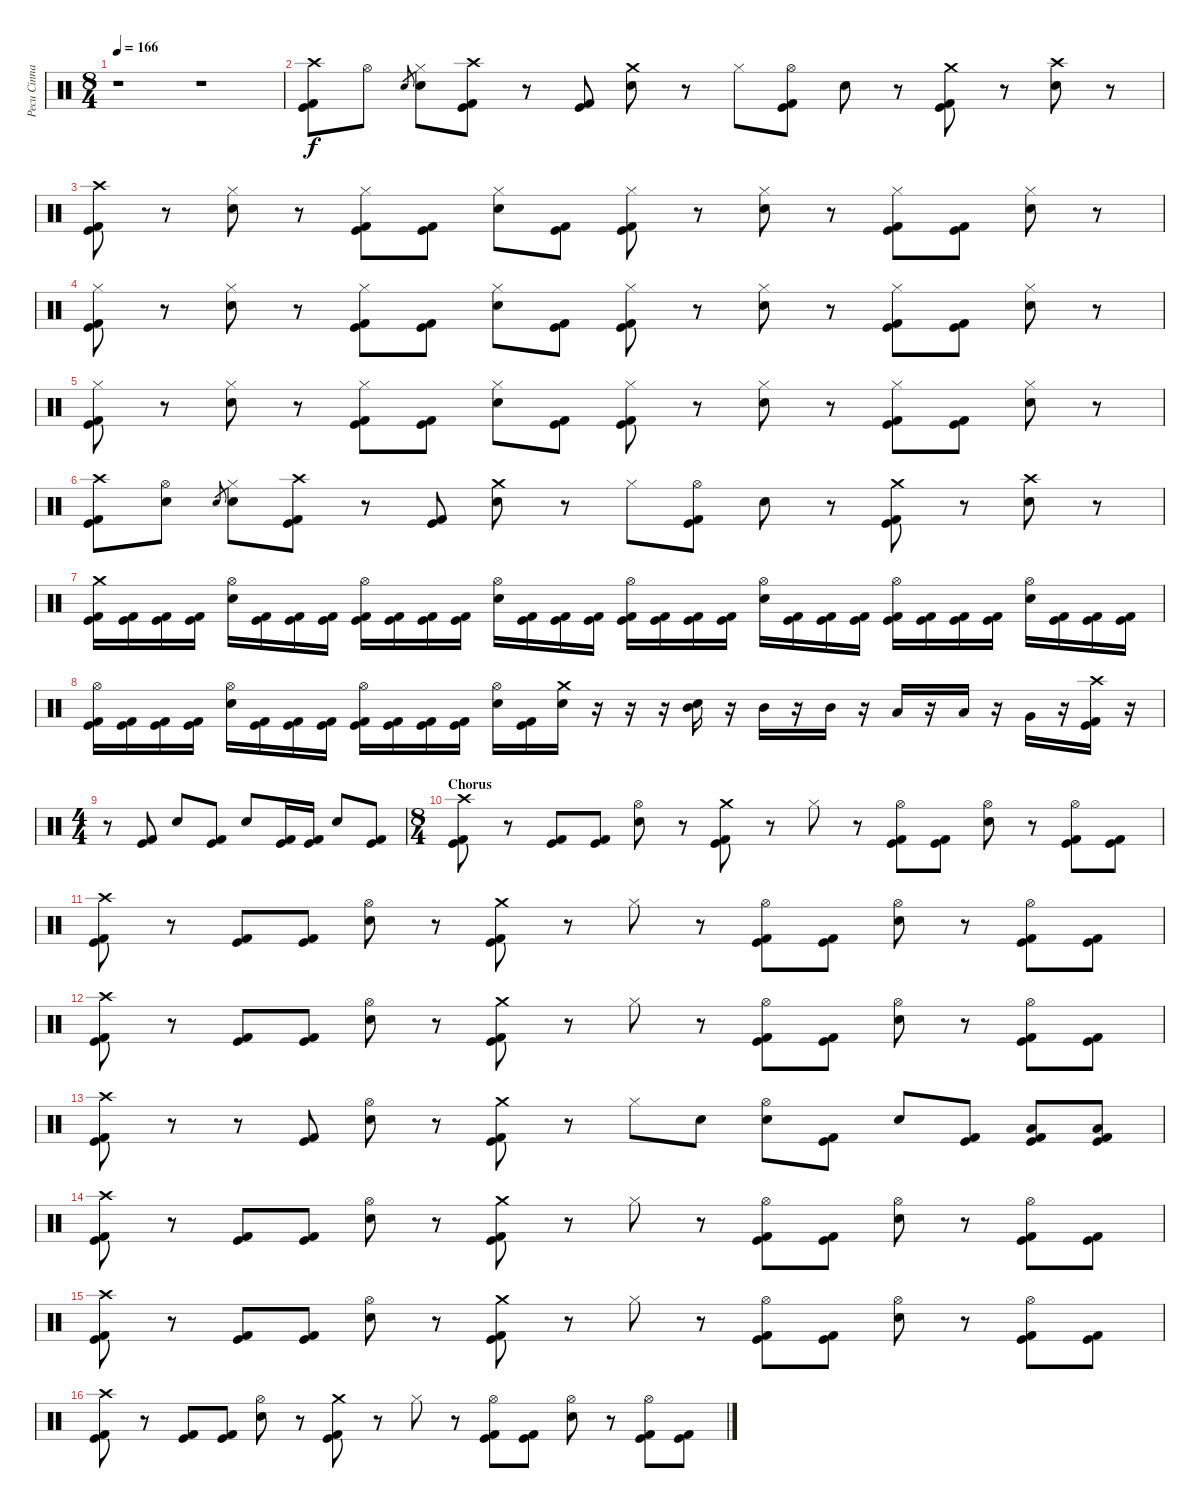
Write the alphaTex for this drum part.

\track ("Pecu Cinnari" "Pecu Cinna") {instrument percussion}
\staff {score}
\articulation defaults
\ts (8 4)
\tempo 166
\clef neutral
\ks c
r.1{dy f} r.1 |
("Crash high (hit)" "Kick (hit)" "Kick (hit) 2").8 "Hi-Hat (open)".8 "Electric Snare (hit)".8{gr} ("Hi-Hat (closed)" "Electric Snare (hit)").8 ("Crash high (hit)" "Kick (hit)" "Kick (hit) 2").8 r.8 ("Kick (hit)" "Kick (hit) 2").8 ("Crash medium (hit)" "Electric Snare (hit)").8 r.8 "Hi-Hat (closed)".8 ("Hi-Hat (open)" "Kick (hit)" "Kick (hit) 2").8 "Electric Snare (hit)".8 r.8 ("Crash medium (hit)" "Kick (hit)" "Kick (hit) 2").8 r.8 ("Crash high (hit)" "Electric Snare (hit)").8 r.8 |
("Crash high (hit)" "Kick (hit)" "Kick (hit) 2").8 r.8 ("Hi-Hat (closed)" "Electric Snare (hit)").8 r.8 ("Hi-Hat (closed)" "Kick (hit)" "Kick (hit) 2").8 ("Kick (hit)" "Kick (hit) 2").8 ("Hi-Hat (closed)" "Electric Snare (hit)").8 ("Kick (hit)" "Kick (hit) 2").8 ("Hi-Hat (closed)" "Kick (hit)" "Kick (hit) 2").8 r.8 ("Hi-Hat (closed)" "Electric Snare (hit)").8 r.8 ("Hi-Hat (closed)" "Kick (hit)" "Kick (hit) 2").8 ("Kick (hit)" "Kick (hit) 2").8 ("Hi-Hat (closed)" "Electric Snare (hit)").8 r.8 |
("Hi-Hat (closed)" "Kick (hit)" "Kick (hit) 2").8 r.8 ("Hi-Hat (closed)" "Electric Snare (hit)").8 r.8 ("Hi-Hat (closed)" "Kick (hit)" "Kick (hit) 2").8 ("Kick (hit)" "Kick (hit) 2").8 ("Hi-Hat (closed)" "Electric Snare (hit)").8 ("Kick (hit)" "Kick (hit) 2").8 ("Hi-Hat (closed)" "Kick (hit)" "Kick (hit) 2").8 r.8 ("Hi-Hat (closed)" "Electric Snare (hit)").8 r.8 ("Hi-Hat (closed)" "Kick (hit)" "Kick (hit) 2").8 ("Kick (hit)" "Kick (hit) 2").8 ("Hi-Hat (closed)" "Electric Snare (hit)").8 r.8 |
("Hi-Hat (closed)" "Kick (hit)" "Kick (hit) 2").8 r.8 ("Hi-Hat (closed)" "Electric Snare (hit)").8 r.8 ("Hi-Hat (closed)" "Kick (hit)" "Kick (hit) 2").8 ("Kick (hit)" "Kick (hit) 2").8 ("Hi-Hat (closed)" "Electric Snare (hit)").8 ("Kick (hit)" "Kick (hit) 2").8 ("Hi-Hat (closed)" "Kick (hit)" "Kick (hit) 2").8 r.8 ("Hi-Hat (closed)" "Electric Snare (hit)").8 r.8 ("Hi-Hat (closed)" "Kick (hit)" "Kick (hit) 2").8 ("Kick (hit)" "Kick (hit) 2").8 ("Hi-Hat (closed)" "Electric Snare (hit)").8 r.8 |
("Crash high (hit)" "Kick (hit)" "Kick (hit) 2").8 ("Hi-Hat (open)" "Electric Snare (hit)").8 "Electric Snare (hit)".8{gr} ("Hi-Hat (closed)" "Electric Snare (hit)").8 ("Crash high (hit)" "Kick (hit)" "Kick (hit) 2").8 r.8 ("Kick (hit)" "Kick (hit) 2").8 ("Crash medium (hit)" "Electric Snare (hit)").8 r.8 "Hi-Hat (closed)".8 ("Hi-Hat (open)" "Kick (hit)" "Kick (hit) 2").8 "Electric Snare (hit)".8 r.8 ("Crash medium (hit)" "Kick (hit)" "Kick (hit) 2").8 r.8 ("Crash high (hit)" "Electric Snare (hit)").8 r.8 |
("Crash medium (hit)" "Kick (hit)" "Kick (hit) 2").16 ("Kick (hit)" "Kick (hit) 2").16 ("Kick (hit)" "Kick (hit) 2").16 ("Kick (hit)" "Kick (hit) 2").16 ("Hi-Hat (open)" "Electric Snare (hit)").16 ("Kick (hit)" "Kick (hit) 2").16 ("Kick (hit)" "Kick (hit) 2").16 ("Kick (hit)" "Kick (hit) 2").16 ("Hi-Hat (open)" "Kick (hit)" "Kick (hit) 2").16 ("Kick (hit)" "Kick (hit) 2").16 ("Kick (hit)" "Kick (hit) 2").16 ("Kick (hit)" "Kick (hit) 2").16 ("Hi-Hat (open)" "Electric Snare (hit)").16 ("Kick (hit)" "Kick (hit) 2").16 ("Kick (hit)" "Kick (hit) 2").16 ("Kick (hit)" "Kick (hit) 2").16 ("Hi-Hat (open)" "Kick (hit)" "Kick (hit) 2").16 ("Kick (hit)" "Kick (hit) 2").16 ("Kick (hit)" "Kick (hit) 2").16 ("Kick (hit)" "Kick (hit) 2").16 ("Hi-Hat (open)" "Electric Snare (hit)").16 ("Kick (hit)" "Kick (hit) 2").16 ("Kick (hit)" "Kick (hit) 2").16 ("Kick (hit)" "Kick (hit) 2").16 ("Hi-Hat (open)" "Kick (hit)" "Kick (hit) 2").16 ("Kick (hit)" "Kick (hit) 2").16 ("Kick (hit)" "Kick (hit) 2").16 ("Kick (hit)" "Kick (hit) 2").16 ("Hi-Hat (open)" "Electric Snare (hit)").16 ("Kick (hit)" "Kick (hit) 2").16 ("Kick (hit)" "Kick (hit) 2").16 ("Kick (hit)" "Kick (hit) 2").16 |
("Hi-Hat (open)" "Kick (hit)" "Kick (hit) 2").16 ("Kick (hit)" "Kick (hit) 2").16 ("Kick (hit)" "Kick (hit) 2").16 ("Kick (hit)" "Kick (hit) 2").16 ("Hi-Hat (open)" "Electric Snare (hit)").16 ("Kick (hit)" "Kick (hit) 2").16 ("Kick (hit)" "Kick (hit) 2").16 ("Kick (hit)" "Kick (hit) 2").16 ("Hi-Hat (open)" "Kick (hit)" "Kick (hit) 2").16 ("Kick (hit)" "Kick (hit) 2").16 ("Kick (hit)" "Kick (hit) 2").16 ("Kick (hit)" "Kick (hit) 2").16 ("Hi-Hat (open)" "Electric Snare (hit)").16 ("Kick (hit)" "Kick (hit) 2").16 ("Crash medium (hit)" "Electric Snare (hit)").16 r.16 r.16 r.16 ("Mid Tom (hit)" "Electric Snare (hit)").16 r.16 "Mid Tom (hit)".16 r.16 "Mid Tom (hit)".16 r.16 "Low Tom (hit)".16 r.16 "Low Tom (hit)".16 r.16 "Very Low Tom (hit)".16 r.16 ("Crash high (hit)" "Kick (hit)" "Kick (hit) 2").16 r.16 |
\ts (4 4)
r.8 ("Kick (hit)" "Kick (hit) 2").8 "Electric Snare (hit)".8 ("Kick (hit)" "Kick (hit) 2").8 "Electric Snare (hit)".8 ("Kick (hit)" "Kick (hit) 2").16 ("Kick (hit)" "Kick (hit) 2").16 "Electric Snare (hit)".8 ("Kick (hit)" "Kick (hit) 2").8 |
\ts (8 4)
\section ("" "Chorus")
("Crash high (hit)" "Kick (hit)" "Kick (hit) 2").8 r.8 ("Kick (hit)" "Kick (hit) 2").8 ("Kick (hit)" "Kick (hit) 2").8 ("Hi-Hat (open)" "Electric Snare (hit)").8 r.8 ("Crash medium (hit)" "Kick (hit)" "Kick (hit) 2").8 r.8 "Hi-Hat (closed)".8 r.8 ("Hi-Hat (open)" "Kick (hit)" "Kick (hit) 2").8 ("Kick (hit)" "Kick (hit) 2").8 ("Hi-Hat (open)" "Electric Snare (hit)").8 r.8 ("Hi-Hat (open)" "Kick (hit)" "Kick (hit) 2").8 ("Kick (hit)" "Kick (hit) 2").8 |
("Crash high (hit)" "Kick (hit)" "Kick (hit) 2").8 r.8 ("Kick (hit)" "Kick (hit) 2").8 ("Kick (hit)" "Kick (hit) 2").8 ("Hi-Hat (open)" "Electric Snare (hit)").8 r.8 ("Crash medium (hit)" "Kick (hit)" "Kick (hit) 2").8 r.8 "Hi-Hat (closed)".8 r.8 ("Hi-Hat (open)" "Kick (hit)" "Kick (hit) 2").8 ("Kick (hit)" "Kick (hit) 2").8 ("Hi-Hat (open)" "Electric Snare (hit)").8 r.8 ("Hi-Hat (open)" "Kick (hit)" "Kick (hit) 2").8 ("Kick (hit)" "Kick (hit) 2").8 |
("Crash high (hit)" "Kick (hit)" "Kick (hit) 2").8 r.8 ("Kick (hit)" "Kick (hit) 2").8 ("Kick (hit)" "Kick (hit) 2").8 ("Hi-Hat (open)" "Electric Snare (hit)").8 r.8 ("Crash medium (hit)" "Kick (hit)" "Kick (hit) 2").8 r.8 "Hi-Hat (closed)".8 r.8 ("Hi-Hat (open)" "Kick (hit)" "Kick (hit) 2").8 ("Kick (hit)" "Kick (hit) 2").8 ("Hi-Hat (open)" "Electric Snare (hit)").8 r.8 ("Hi-Hat (open)" "Kick (hit)" "Kick (hit) 2").8 ("Kick (hit)" "Kick (hit) 2").8 |
("Crash high (hit)" "Kick (hit)" "Kick (hit) 2").8 r.8 r.8 ("Kick (hit)" "Kick (hit) 2").8 ("Hi-Hat (open)" "Electric Snare (hit)").8 r.8 ("Crash medium (hit)" "Kick (hit)" "Kick (hit) 2").8 r.8 "Hi-Hat (closed)".8 "Electric Snare (hit)".8 ("Hi-Hat (open)" "Electric Snare (hit)").8 ("Kick (hit)" "Kick (hit) 2").8 "Electric Snare (hit)".8 ("Kick (hit)" "Kick (hit) 2").8 ("Low Tom (hit)" "Kick (hit)" "Kick (hit) 2").8 ("Low Tom (hit)" "Kick (hit)" "Kick (hit) 2").8 |
("Crash high (hit)" "Kick (hit)" "Kick (hit) 2").8 r.8 ("Kick (hit)" "Kick (hit) 2").8 ("Kick (hit)" "Kick (hit) 2").8 ("Hi-Hat (open)" "Electric Snare (hit)").8 r.8 ("Crash medium (hit)" "Kick (hit)" "Kick (hit) 2").8 r.8 "Hi-Hat (closed)".8 r.8 ("Hi-Hat (open)" "Kick (hit)" "Kick (hit) 2").8 ("Kick (hit)" "Kick (hit) 2").8 ("Hi-Hat (open)" "Electric Snare (hit)").8 r.8 ("Hi-Hat (open)" "Kick (hit)" "Kick (hit) 2").8 ("Kick (hit)" "Kick (hit) 2").8 |
("Crash high (hit)" "Kick (hit)" "Kick (hit) 2").8 r.8 ("Kick (hit)" "Kick (hit) 2").8 ("Kick (hit)" "Kick (hit) 2").8 ("Hi-Hat (open)" "Electric Snare (hit)").8 r.8 ("Crash medium (hit)" "Kick (hit)" "Kick (hit) 2").8 r.8 "Hi-Hat (closed)".8 r.8 ("Hi-Hat (open)" "Kick (hit)" "Kick (hit) 2").8 ("Kick (hit)" "Kick (hit) 2").8 ("Hi-Hat (open)" "Electric Snare (hit)").8 r.8 ("Hi-Hat (open)" "Kick (hit)" "Kick (hit) 2").8 ("Kick (hit)" "Kick (hit) 2").8 |
("Crash high (hit)" "Kick (hit)" "Kick (hit) 2").8 r.8 ("Kick (hit)" "Kick (hit) 2").8 ("Kick (hit)" "Kick (hit) 2").8 ("Hi-Hat (open)" "Electric Snare (hit)").8 r.8 ("Crash medium (hit)" "Kick (hit)" "Kick (hit) 2").8 r.8 "Hi-Hat (closed)".8 r.8 ("Hi-Hat (open)" "Kick (hit)" "Kick (hit) 2").8 ("Kick (hit)" "Kick (hit) 2").8 ("Hi-Hat (open)" "Electric Snare (hit)").8 r.8 ("Hi-Hat (open)" "Kick (hit)" "Kick (hit) 2").8 ("Kick (hit)" "Kick (hit) 2").8
